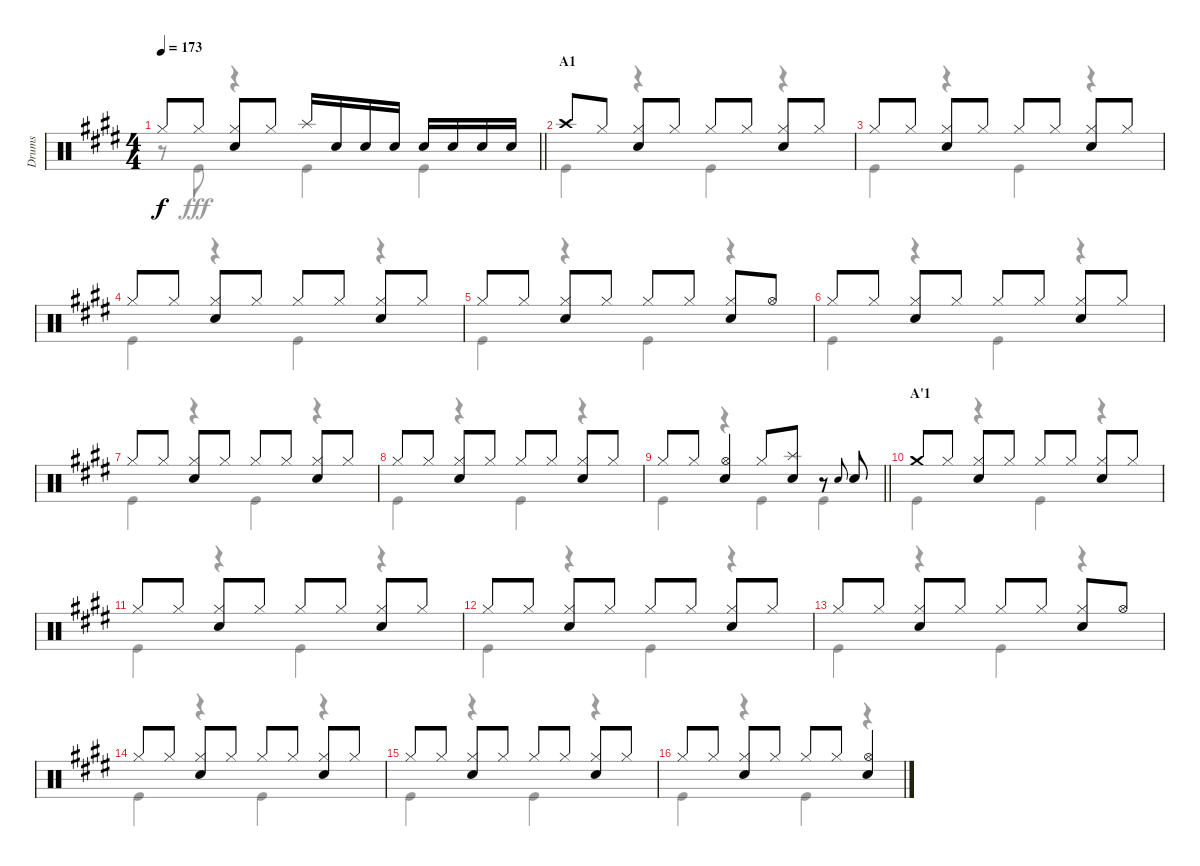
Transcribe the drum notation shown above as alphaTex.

\track ("Drums" "Drums") {instrument percussion}
\staff {score}
\articulation defaults
\voice
\ts (4 4)
\tempo 173
\clef neutral
\barLineRight lightlight
\ks e "Hi-Hat (closed)".8{dy f} "Hi-Hat (closed)".8
("Hi-Hat (closed)" "Snare (hit) 2").8 "Hi-Hat (closed)".8 "Splash (hit)".16 "Snare (hit) 2".16 "Snare (hit) 2".16 "Snare (hit) 2".16 "Snare (hit) 2".16 "Snare (hit) 2".16 "Snare (hit) 2".16 "Snare (hit) 2".16 |
\section ("" "A1")
"Crash high (hit)".8 "Hi-Hat (closed)".8 ("Hi-Hat (closed)" "Snare (hit) 2").8 "Hi-Hat (closed)".8 "Hi-Hat (closed)".8 "Hi-Hat (closed)".8 ("Hi-Hat (closed)" "Snare (hit) 2").8 "Hi-Hat (closed)".8 |
"Hi-Hat (closed)".8 "Hi-Hat (closed)".8 ("Hi-Hat (closed)" "Snare (hit) 2").8 "Hi-Hat (closed)".8 "Hi-Hat (closed)".8 "Hi-Hat (closed)".8 ("Hi-Hat (closed)" "Snare (hit) 2").8 "Hi-Hat (closed)".8 |
"Hi-Hat (closed)".8 "Hi-Hat (closed)".8 ("Hi-Hat (closed)" "Snare (hit) 2").8 "Hi-Hat (closed)".8 "Hi-Hat (closed)".8 "Hi-Hat (closed)".8 ("Hi-Hat (closed)" "Snare (hit) 2").8 "Hi-Hat (closed)".8 |
"Hi-Hat (closed)".8 "Hi-Hat (closed)".8 ("Hi-Hat (closed)" "Snare (hit) 2").8 "Hi-Hat (closed)".8 "Hi-Hat (closed)".8 "Hi-Hat (closed)".8 ("Hi-Hat (closed)" "Snare (hit) 2").8 "Hi-Hat (open)".8 |
"Hi-Hat (closed)".8 "Hi-Hat (closed)".8 ("Hi-Hat (closed)" "Snare (hit) 2").8 "Hi-Hat (closed)".8 "Hi-Hat (closed)".8 "Hi-Hat (closed)".8 ("Hi-Hat (closed)" "Snare (hit) 2").8 "Hi-Hat (closed)".8 |
"Hi-Hat (closed)".8 "Hi-Hat (closed)".8 ("Hi-Hat (closed)" "Snare (hit) 2").8 "Hi-Hat (closed)".8 "Hi-Hat (closed)".8 "Hi-Hat (closed)".8 ("Hi-Hat (closed)" "Snare (hit) 2").8 "Hi-Hat (closed)".8 |
"Hi-Hat (closed)".8 "Hi-Hat (closed)".8 ("Hi-Hat (closed)" "Snare (hit) 2").8 "Hi-Hat (closed)".8 "Hi-Hat (closed)".8 "Hi-Hat (closed)".8 ("Hi-Hat (closed)" "Snare (hit) 2").8 "Hi-Hat (closed)".8 |
\barLineRight lightlight "Hi-Hat (closed)".8 "Hi-Hat (closed)".8
("Hi-Hat (open)" "Snare (hit) 2").4 "Hi-Hat (closed)".8 ("Splash (hit)" "Snare (hit) 2").8 r.8 "Snare (hit) 2".8{gr onbeat} "Snare (hit) 2".8 |
\section ("" "A'1")
"Crash medium (hit)".8 "Hi-Hat (closed)".8 ("Hi-Hat (closed)" "Snare (hit) 2").8 "Hi-Hat (closed)".8 "Hi-Hat (closed)".8 "Hi-Hat (closed)".8 ("Hi-Hat (closed)" "Snare (hit) 2").8 "Hi-Hat (closed)".8 |
"Hi-Hat (closed)".8 "Hi-Hat (closed)".8 ("Hi-Hat (closed)" "Snare (hit) 2").8 "Hi-Hat (closed)".8 "Hi-Hat (closed)".8 "Hi-Hat (closed)".8 ("Hi-Hat (closed)" "Snare (hit) 2").8 "Hi-Hat (closed)".8 |
"Hi-Hat (closed)".8 "Hi-Hat (closed)".8 ("Hi-Hat (closed)" "Snare (hit) 2").8 "Hi-Hat (closed)".8 "Hi-Hat (closed)".8 "Hi-Hat (closed)".8 ("Hi-Hat (closed)" "Snare (hit) 2").8 "Hi-Hat (closed)".8 |
"Hi-Hat (closed)".8 "Hi-Hat (closed)".8 ("Hi-Hat (closed)" "Snare (hit) 2").8 "Hi-Hat (closed)".8 "Hi-Hat (closed)".8 "Hi-Hat (closed)".8 ("Hi-Hat (closed)" "Snare (hit) 2").8 "Hi-Hat (open)".8 |
"Hi-Hat (closed)".8 "Hi-Hat (closed)".8 ("Hi-Hat (closed)" "Snare (hit) 2").8 "Hi-Hat (closed)".8 "Hi-Hat (closed)".8 "Hi-Hat (closed)".8 ("Hi-Hat (closed)" "Snare (hit) 2").8 "Hi-Hat (closed)".8 |
"Hi-Hat (closed)".8 "Hi-Hat (closed)".8 ("Hi-Hat (closed)" "Snare (hit) 2").8 "Hi-Hat (closed)".8 "Hi-Hat (closed)".8 "Hi-Hat (closed)".8 ("Hi-Hat (closed)" "Snare (hit) 2").8 "Hi-Hat (closed)".8 |
"Hi-Hat (closed)".8 "Hi-Hat (closed)".8 ("Hi-Hat (closed)" "Snare (hit) 2").8 "Hi-Hat (closed)".8 "Hi-Hat (closed)".8 "Hi-Hat (closed)".8 ("Hi-Hat (open)" "Snare (hit) 2").4
\voice
\clef neutral
\ottava regular
\simile none
\barLineRight lightlight
\ks e
r.8{dy fff} "Kick (hit)".8 r.4 "Kick (hit)".4 "Kick (hit)".4 |
"Kick (hit)".4 r.4 "Kick (hit)".4 r.4 |
"Kick (hit)".4 r.4 "Kick (hit)".4 r.4 |
"Kick (hit)".4 r.4 "Kick (hit)".4 r.4 |
"Kick (hit)".4 r.4 "Kick (hit)".4 r.4 |
"Kick (hit)".4 r.4 "Kick (hit)".4 r.4 |
"Kick (hit)".4 r.4 "Kick (hit)".4 r.4 |
"Kick (hit)".4 r.4 "Kick (hit)".4 r.4 |
\barLineRight lightlight "Kick (hit)".4
r.4 "Kick (hit)".4 "Kick (hit)".4 |
"Kick (hit)".4 r.4 "Kick (hit)".4 r.4 |
"Kick (hit)".4 r.4 "Kick (hit)".4 r.4 |
"Kick (hit)".4 r.4 "Kick (hit)".4 r.4 |
"Kick (hit)".4 r.4 "Kick (hit)".4 r.4 |
"Kick (hit)".4 r.4 "Kick (hit)".4 r.4 |
"Kick (hit)".4 r.4 "Kick (hit)".4 r.4 |
"Kick (hit)".4 r.4 "Kick (hit)".4 r.4
